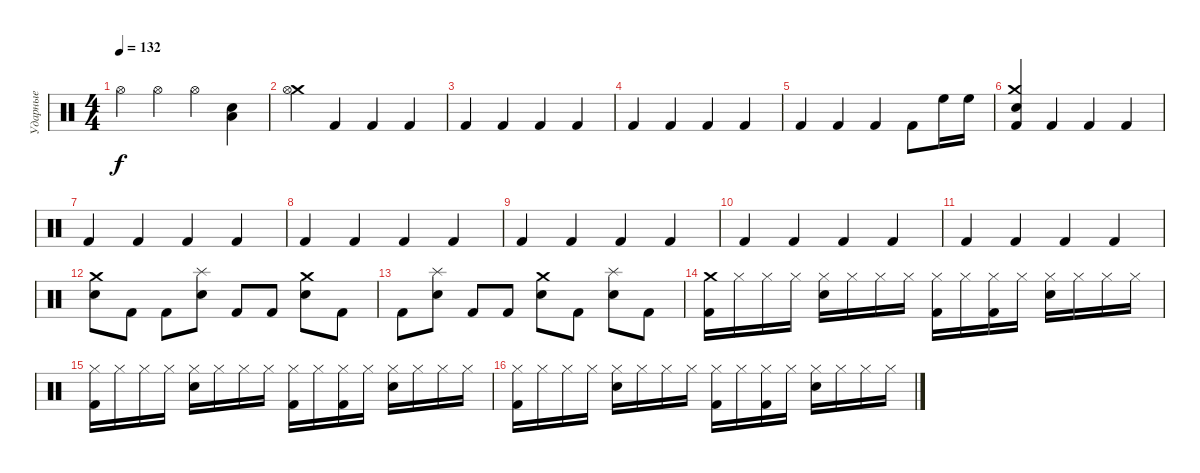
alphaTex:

\track ("Ударные" "Ударные") {instrument percussion}
\staff {score}
\articulation defaults
\ts (4 4)
\tempo 132
\clef neutral
\ks c "Hi-Hat (open)".4{dy f} "Hi-Hat (open)".4 "Hi-Hat (open)".4
("Electric Snare (hit)" "Low Tom (hit)").4 |
("Crash medium (hit)" "Hi-Hat (open)").4 "Kick (hit) 2".4 "Kick (hit) 2".4 "Kick (hit) 2".4 |
"Kick (hit) 2".4 "Kick (hit) 2".4 "Kick (hit) 2".4 "Kick (hit) 2".4 |
"Kick (hit) 2".4 "Kick (hit) 2".4 "Kick (hit) 2".4 "Kick (hit) 2".4 |
"Kick (hit) 2".4 "Kick (hit) 2".4 "Kick (hit) 2".4 "Kick (hit) 2".8 "High Floor Tom (hit)".16 "High Floor Tom (hit)".16 |
("Crash medium (hit)" "Electric Snare (hit)" "Kick (hit) 2").4 "Kick (hit) 2".4 "Kick (hit) 2".4 "Kick (hit) 2".4 |
"Kick (hit) 2".4 "Kick (hit) 2".4 "Kick (hit) 2".4 "Kick (hit) 2".4 |
"Kick (hit) 2".4 "Kick (hit) 2".4 "Kick (hit) 2".4 "Kick (hit) 2".4 |
"Kick (hit) 2".4 "Kick (hit) 2".4 "Kick (hit) 2".4 "Kick (hit) 2".4 |
"Kick (hit) 2".4 "Kick (hit) 2".4 "Kick (hit) 2".4 "Kick (hit) 2".4 |
"Kick (hit) 2".4 "Kick (hit) 2".4 "Kick (hit) 2".4 "Kick (hit) 2".4 |
("Crash medium (hit)" "Electric Snare (hit)").8 "Kick (hit) 2".8 "Kick (hit) 2".8 ("Splash (hit)" "Electric Snare (hit)").8 "Kick (hit) 2".8 "Kick (hit) 2".8 ("Crash medium (hit)" "Electric Snare (hit)").8 "Kick (hit) 2".8 |
"Kick (hit) 2".8 ("Splash (hit)" "Electric Snare (hit)").8 "Kick (hit) 2".8 "Kick (hit) 2".8 ("Crash medium (hit)" "Electric Snare (hit)").8 "Kick (hit) 2".8 ("Splash (hit)" "Electric Snare (hit)").8 "Kick (hit) 2".8 |
("Crash medium (hit)" "Kick (hit) 2").16 "Hi-Hat (closed)".16 "Hi-Hat (closed)".16 "Hi-Hat (closed)".16 ("Hi-Hat (closed)" "Electric Snare (hit)").16 "Hi-Hat (closed)".16 "Hi-Hat (closed)".16 "Hi-Hat (closed)".16 ("Hi-Hat (closed)" "Kick (hit) 2").16 "Hi-Hat (closed)".16 ("Hi-Hat (closed)" "Kick (hit) 2").16 "Hi-Hat (closed)".16 ("Hi-Hat (closed)" "Electric Snare (hit)").16 "Hi-Hat (closed)".16 "Hi-Hat (closed)".16 "Hi-Hat (closed)".16 |
("Hi-Hat (closed)" "Kick (hit) 2").16 "Hi-Hat (closed)".16 "Hi-Hat (closed)".16 "Hi-Hat (closed)".16 ("Hi-Hat (closed)" "Electric Snare (hit)").16 "Hi-Hat (closed)".16 "Hi-Hat (closed)".16 "Hi-Hat (closed)".16 ("Hi-Hat (closed)" "Kick (hit) 2").16 "Hi-Hat (closed)".16 ("Hi-Hat (closed)" "Kick (hit) 2").16 "Hi-Hat (closed)".16 ("Hi-Hat (closed)" "Electric Snare (hit)").16 "Hi-Hat (closed)".16 "Hi-Hat (closed)".16 "Hi-Hat (closed)".16 |
("Hi-Hat (closed)" "Kick (hit) 2").16 "Hi-Hat (closed)".16 "Hi-Hat (closed)".16 "Hi-Hat (closed)".16 ("Hi-Hat (closed)" "Electric Snare (hit)").16 "Hi-Hat (closed)".16 "Hi-Hat (closed)".16 "Hi-Hat (closed)".16 ("Hi-Hat (closed)" "Kick (hit) 2").16 "Hi-Hat (closed)".16 ("Hi-Hat (closed)" "Kick (hit) 2").16 "Hi-Hat (closed)".16 ("Hi-Hat (closed)" "Electric Snare (hit)").16 "Hi-Hat (closed)".16 "Hi-Hat (closed)".16 "Hi-Hat (closed)".16
